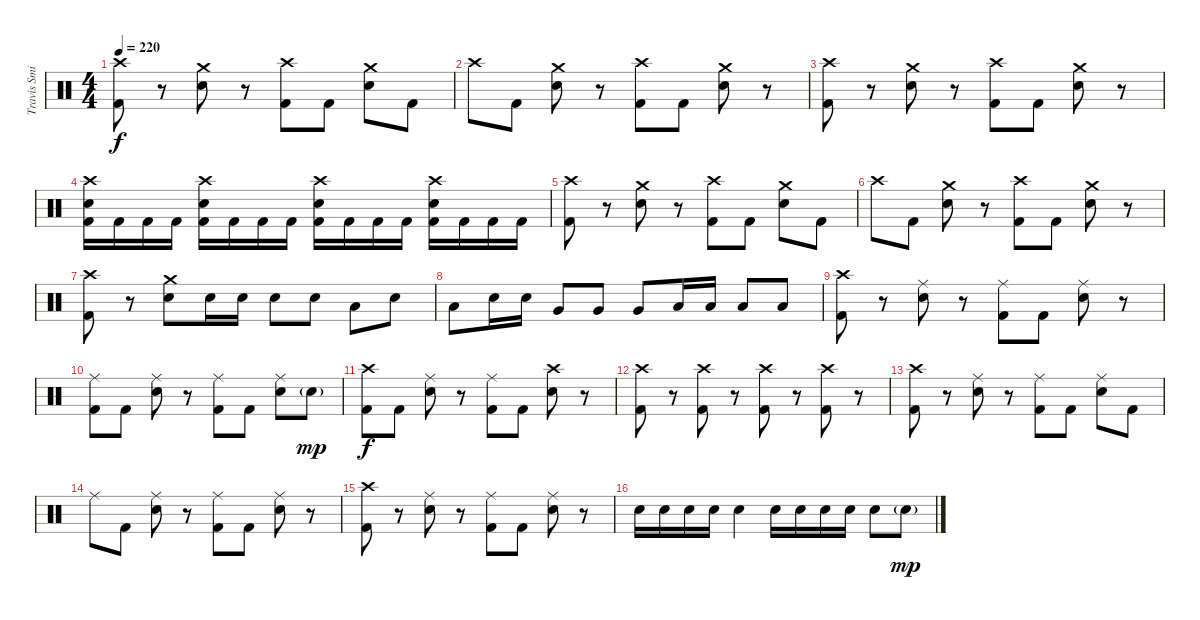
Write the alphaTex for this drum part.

\track ("Travis Smith" "Travis Smi") {instrument percussion}
\staff {score}
\articulation defaults
\ts (4 4)
\tempo 220
\clef neutral
\ks c
("Crash high (hit)" "Kick (hit) 2").8{dy f} r.8 ("Crash medium (hit)" "Electric Snare (hit)").8 r.8 ("Crash high (hit)" "Kick (hit) 2").8 "Kick (hit) 2".8 ("Crash medium (hit)" "Electric Snare (hit)").8 "Kick (hit) 2".8 |
"Crash high (hit)".8 "Kick (hit) 2".8 ("Crash medium (hit)" "Electric Snare (hit)").8 r.8 ("Crash high (hit)" "Kick (hit) 2").8 "Kick (hit) 2".8 ("Crash medium (hit)" "Electric Snare (hit)").8 r.8 |
("Crash high (hit)" "Kick (hit) 2").8 r.8 ("Crash medium (hit)" "Electric Snare (hit)").8 r.8 ("Crash high (hit)" "Kick (hit) 2").8 "Kick (hit) 2".8 ("Crash medium (hit)" "Electric Snare (hit)").8 r.8 |
("Crash high (hit)" "Electric Snare (hit)" "Kick (hit) 2").16 "Kick (hit) 2".16 "Kick (hit) 2".16 "Kick (hit) 2".16 ("Crash high (hit)" "Electric Snare (hit)" "Kick (hit) 2").16 "Kick (hit) 2".16 "Kick (hit) 2".16 "Kick (hit) 2".16 ("Crash high (hit)" "Electric Snare (hit)" "Kick (hit) 2").16 "Kick (hit) 2".16 "Kick (hit) 2".16 "Kick (hit) 2".16 ("Crash high (hit)" "Electric Snare (hit)" "Kick (hit) 2").16 "Kick (hit) 2".16 "Kick (hit) 2".16 "Kick (hit) 2".16 |
("Crash high (hit)" "Kick (hit) 2").8 r.8 ("Crash medium (hit)" "Electric Snare (hit)").8 r.8 ("Crash high (hit)" "Kick (hit) 2").8 "Kick (hit) 2".8 ("Crash medium (hit)" "Electric Snare (hit)").8 "Kick (hit) 2".8 |
"Crash high (hit)".8 "Kick (hit) 2".8 ("Crash medium (hit)" "Electric Snare (hit)").8 r.8 ("Crash high (hit)" "Kick (hit) 2").8 "Kick (hit) 2".8 ("Crash medium (hit)" "Electric Snare (hit)").8 r.8 |
("Crash high (hit)" "Kick (hit) 2").8 r.8 ("Crash medium (hit)" "Electric Snare (hit)").8 "Electric Snare (hit)".16 "Electric Snare (hit)".16 "Electric Snare (hit)".8 "Electric Snare (hit)".8 "Low Tom (hit)".8 "Electric Snare (hit)".8 |
"Low Tom (hit)".8 "Electric Snare (hit)".16 "Electric Snare (hit)".16 "Very Low Tom (hit)".8 "Very Low Tom (hit)".8 "Very Low Tom (hit)".8 "Low Floor Tom (hit)".16 "Low Floor Tom (hit)".16 "Low Floor Tom (hit)".8 "Low Floor Tom (hit)".8 |
("Crash high (hit)" "Kick (hit) 2").8 r.8 ("Ride (middle)" "Electric Snare (hit)").8 r.8 ("Ride (middle)" "Kick (hit) 2").8 "Kick (hit) 2".8 ("Ride (middle)" "Electric Snare (hit)").8 r.8 |
("Ride (middle)" "Kick (hit) 2").8 "Kick (hit) 2".8 ("Ride (middle)" "Electric Snare (hit)").8 r.8 ("Ride (middle)" "Kick (hit) 2").8 "Kick (hit) 2".8 ("Ride (middle)" "Electric Snare (hit)").8 "Electric Snare (hit)"{g}.8{dy mp} |
("Crash high (hit)" "Kick (hit) 2").8{dy f} "Kick (hit) 2".8 ("Ride (middle)" "Electric Snare (hit)").8 r.8 ("Ride (middle)" "Kick (hit) 2").8 "Kick (hit) 2".8 ("Crash high (hit)" "Electric Snare (hit)").8 r.8 |
("Crash high (hit)" "Kick (hit) 2").8 r.8 ("Crash high (hit)" "Kick (hit) 2").8 r.8 ("Crash high (hit)" "Kick (hit) 2").8 r.8 ("Crash high (hit)" "Kick (hit) 2").8 r.8 |
("Crash high (hit)" "Kick (hit) 2").8 r.8 ("Ride (middle)" "Electric Snare (hit)").8 r.8 ("Ride (middle)" "Kick (hit) 2").8 "Kick (hit) 2".8 ("Ride (middle)" "Electric Snare (hit)").8 "Kick (hit) 2".8 |
"Ride (middle)".8 "Kick (hit) 2".8 ("Ride (middle)" "Electric Snare (hit)").8 r.8 ("Ride (middle)" "Kick (hit) 2").8 "Kick (hit) 2".8 ("Ride (middle)" "Electric Snare (hit)").8 r.8 |
("Crash high (hit)" "Kick (hit) 2").8 r.8 ("Ride (middle)" "Electric Snare (hit)").8 r.8 ("Ride (middle)" "Kick (hit) 2").8 "Kick (hit) 2".8 ("Ride (middle)" "Electric Snare (hit)").8 r.8 |
"Electric Snare (hit)".16 "Electric Snare (hit)".16 "Electric Snare (hit)".16 "Electric Snare (hit)".16 "Electric Snare (hit)".4 "Electric Snare (hit)".16 "Electric Snare (hit)".16 "Electric Snare (hit)".16 "Electric Snare (hit)".16 "Electric Snare (hit)".8 "Electric Snare (hit)"{g}.8{dy mp}
